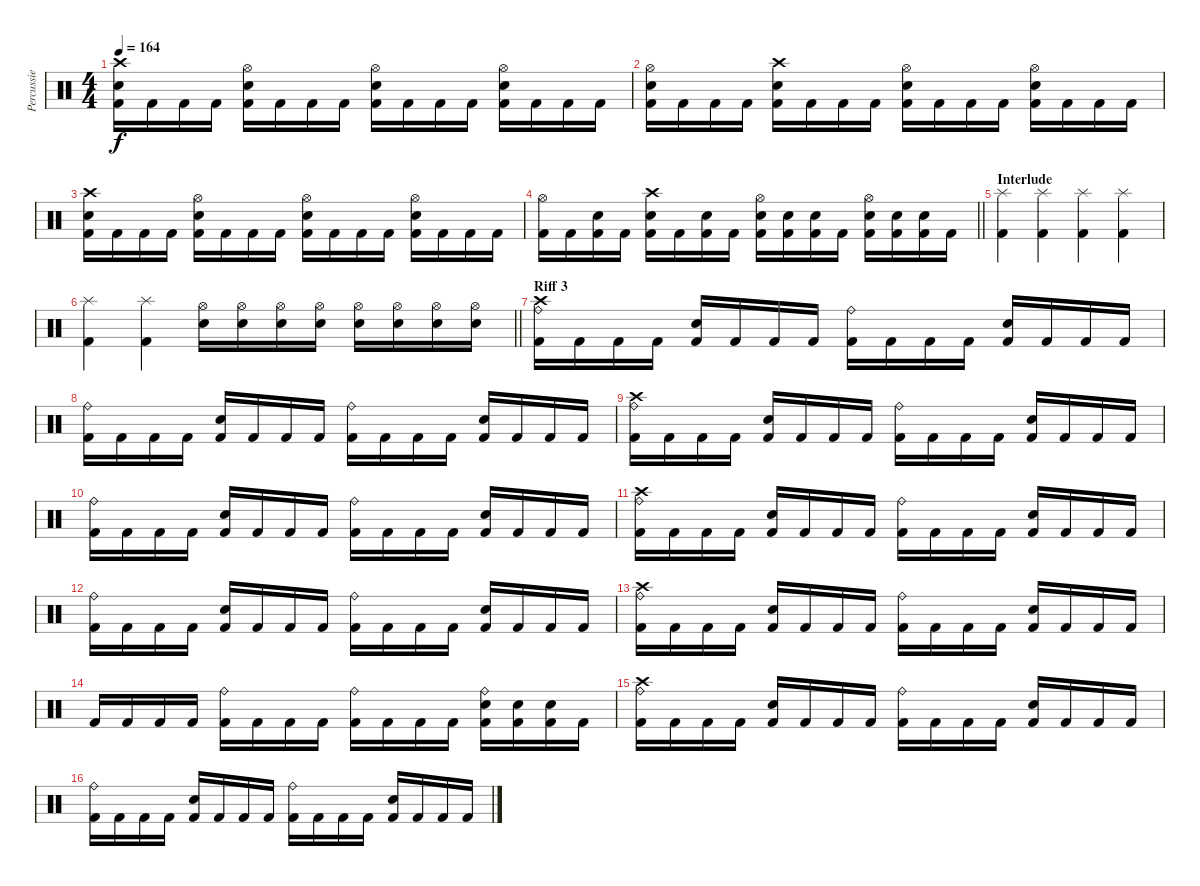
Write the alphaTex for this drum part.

\track ("Percussie" "Percussie") {instrument percussion}
\staff {score}
\articulation defaults
\ts (4 4)
\tempo 164
\clef neutral
\ks c
("Crash high (hit)" "Electric Snare (hit)" "Kick (hit) 2").16{dy f} "Kick (hit) 2".16 "Kick (hit) 2".16 "Kick (hit) 2".16 ("Hi-Hat (open)" "Electric Snare (hit)" "Kick (hit) 2").16 "Kick (hit) 2".16 "Kick (hit) 2".16 "Kick (hit) 2".16 ("Hi-Hat (open)" "Electric Snare (hit)" "Kick (hit) 2").16 "Kick (hit) 2".16 "Kick (hit) 2".16 "Kick (hit) 2".16 ("Hi-Hat (open)" "Electric Snare (hit)" "Kick (hit) 2").16 "Kick (hit) 2".16 "Kick (hit) 2".16 "Kick (hit) 2".16 |
("Hi-Hat (open)" "Electric Snare (hit)" "Kick (hit) 2").16 "Kick (hit) 2".16 "Kick (hit) 2".16 "Kick (hit) 2".16 ("Crash high (hit)" "Electric Snare (hit)" "Kick (hit) 2").16 "Kick (hit) 2".16 "Kick (hit) 2".16 "Kick (hit) 2".16 ("Hi-Hat (open)" "Electric Snare (hit)" "Kick (hit) 2").16 "Kick (hit) 2".16 "Kick (hit) 2".16 "Kick (hit) 2".16 ("Hi-Hat (open)" "Electric Snare (hit)" "Kick (hit) 2").16 "Kick (hit) 2".16 "Kick (hit) 2".16 "Kick (hit) 2".16 |
("Crash high (hit)" "Electric Snare (hit)" "Kick (hit) 2").16 "Kick (hit) 2".16 "Kick (hit) 2".16 "Kick (hit) 2".16 ("Hi-Hat (open)" "Electric Snare (hit)" "Kick (hit) 2").16 "Kick (hit) 2".16 "Kick (hit) 2".16 "Kick (hit) 2".16 ("Hi-Hat (open)" "Electric Snare (hit)" "Kick (hit) 2").16 "Kick (hit) 2".16 "Kick (hit) 2".16 "Kick (hit) 2".16 ("Hi-Hat (open)" "Electric Snare (hit)" "Kick (hit) 2").16 "Kick (hit) 2".16 "Kick (hit) 2".16 "Kick (hit) 2".16 |
\barLineRight lightlight
("Hi-Hat (open)" "Kick (hit) 2").16 "Kick (hit) 2".16 ("Electric Snare (hit)" "Kick (hit) 2").16 "Kick (hit) 2".16 ("Crash high (hit)" "Electric Snare (hit)" "Kick (hit) 2").16 "Kick (hit) 2".16 ("Electric Snare (hit)" "Kick (hit) 2").16 "Kick (hit) 2".16 ("Hi-Hat (open)" "Electric Snare (hit)" "Kick (hit) 2").16 ("Electric Snare (hit)" "Kick (hit) 2").16 ("Electric Snare (hit)" "Kick (hit) 2").16 "Kick (hit) 2".16 ("Hi-Hat (open)" "Electric Snare (hit)" "Kick (hit) 2").16 ("Electric Snare (hit)" "Kick (hit) 2").16 ("Electric Snare (hit)" "Kick (hit) 2").16 "Kick (hit) 2".16 |
\section ("" "Interlude")
("Splash (hit)" "Kick (hit) 2").4 ("Splash (hit)" "Kick (hit) 2").4 ("Splash (hit)" "Kick (hit) 2").4 ("Splash (hit)" "Kick (hit) 2").4 |
\barLineRight lightlight
("Splash (hit)" "Kick (hit) 2").4 ("Splash (hit)" "Kick (hit) 2").4 ("Hi-Hat (open)" "Electric Snare (hit)").16 ("Hi-Hat (open)" "Electric Snare (hit)").16 ("Hi-Hat (open)" "Electric Snare (hit)").16 ("Hi-Hat (open)" "Electric Snare (hit)").16 ("Hi-Hat (open)" "Electric Snare (hit)").16 ("Hi-Hat (open)" "Electric Snare (hit)").16 ("Hi-Hat (open)" "Electric Snare (hit)").16 ("Hi-Hat (open)" "Electric Snare (hit)").16 |
\section ("" "Riff 3")
("Ride (bell)" "Crash high (hit)" "Kick (hit) 2").16 "Kick (hit) 2".16 "Kick (hit) 2".16 "Kick (hit) 2".16 ("Electric Snare (hit)" "Kick (hit) 2").16 "Kick (hit) 2".16 "Kick (hit) 2".16 "Kick (hit) 2".16 ("Ride (bell)" "Kick (hit) 2").16 "Kick (hit) 2".16 "Kick (hit) 2".16 "Kick (hit) 2".16 ("Electric Snare (hit)" "Kick (hit) 2").16 "Kick (hit) 2".16 "Kick (hit) 2".16 "Kick (hit) 2".16 |
("Ride (bell)" "Kick (hit) 2").16 "Kick (hit) 2".16 "Kick (hit) 2".16 "Kick (hit) 2".16 ("Electric Snare (hit)" "Kick (hit) 2").16 "Kick (hit) 2".16 "Kick (hit) 2".16 "Kick (hit) 2".16 ("Ride (bell)" "Kick (hit) 2").16 "Kick (hit) 2".16 "Kick (hit) 2".16 "Kick (hit) 2".16 ("Electric Snare (hit)" "Kick (hit) 2").16 "Kick (hit) 2".16 "Kick (hit) 2".16 "Kick (hit) 2".16 |
("Ride (bell)" "Crash high (hit)" "Kick (hit) 2").16 "Kick (hit) 2".16 "Kick (hit) 2".16 "Kick (hit) 2".16 ("Electric Snare (hit)" "Kick (hit) 2").16 "Kick (hit) 2".16 "Kick (hit) 2".16 "Kick (hit) 2".16 ("Ride (bell)" "Kick (hit) 2").16 "Kick (hit) 2".16 "Kick (hit) 2".16 "Kick (hit) 2".16 ("Electric Snare (hit)" "Kick (hit) 2").16 "Kick (hit) 2".16 "Kick (hit) 2".16 "Kick (hit) 2".16 |
("Ride (bell)" "Kick (hit) 2").16 "Kick (hit) 2".16 "Kick (hit) 2".16 "Kick (hit) 2".16 ("Electric Snare (hit)" "Kick (hit) 2").16 "Kick (hit) 2".16 "Kick (hit) 2".16 "Kick (hit) 2".16 ("Ride (bell)" "Kick (hit) 2").16 "Kick (hit) 2".16 "Kick (hit) 2".16 "Kick (hit) 2".16 ("Electric Snare (hit)" "Kick (hit) 2").16 "Kick (hit) 2".16 "Kick (hit) 2".16 "Kick (hit) 2".16 |
("Ride (bell)" "Crash high (hit)" "Kick (hit) 2").16 "Kick (hit) 2".16 "Kick (hit) 2".16 "Kick (hit) 2".16 ("Electric Snare (hit)" "Kick (hit) 2").16 "Kick (hit) 2".16 "Kick (hit) 2".16 "Kick (hit) 2".16 ("Ride (bell)" "Kick (hit) 2").16 "Kick (hit) 2".16 "Kick (hit) 2".16 "Kick (hit) 2".16 ("Electric Snare (hit)" "Kick (hit) 2").16 "Kick (hit) 2".16 "Kick (hit) 2".16 "Kick (hit) 2".16 |
("Ride (bell)" "Kick (hit) 2").16 "Kick (hit) 2".16 "Kick (hit) 2".16 "Kick (hit) 2".16 ("Electric Snare (hit)" "Kick (hit) 2").16 "Kick (hit) 2".16 "Kick (hit) 2".16 "Kick (hit) 2".16 ("Ride (bell)" "Kick (hit) 2").16 "Kick (hit) 2".16 "Kick (hit) 2".16 "Kick (hit) 2".16 ("Electric Snare (hit)" "Kick (hit) 2").16 "Kick (hit) 2".16 "Kick (hit) 2".16 "Kick (hit) 2".16 |
("Ride (bell)" "Crash high (hit)" "Kick (hit) 2").16 "Kick (hit) 2".16 "Kick (hit) 2".16 "Kick (hit) 2".16 ("Electric Snare (hit)" "Kick (hit) 2").16 "Kick (hit) 2".16 "Kick (hit) 2".16 "Kick (hit) 2".16 ("Ride (bell)" "Kick (hit) 2").16 "Kick (hit) 2".16 "Kick (hit) 2".16 "Kick (hit) 2".16 ("Electric Snare (hit)" "Kick (hit) 2").16 "Kick (hit) 2".16 "Kick (hit) 2".16 "Kick (hit) 2".16 |
"Kick (hit) 2".16 "Kick (hit) 2".16 "Kick (hit) 2".16 "Kick (hit) 2".16 ("Ride (bell)" "Kick (hit) 2").16 "Kick (hit) 2".16 "Kick (hit) 2".16 "Kick (hit) 2".16 ("Ride (bell)" "Kick (hit) 2").16 "Kick (hit) 2".16 "Kick (hit) 2".16 "Kick (hit) 2".16 ("Ride (bell)" "Electric Snare (hit)" "Kick (hit) 2").16 ("Electric Snare (hit)" "Kick (hit) 2").16 ("Electric Snare (hit)" "Kick (hit) 2").16 "Kick (hit) 2".16 |
("Ride (bell)" "Crash high (hit)" "Kick (hit) 2").16 "Kick (hit) 2".16 "Kick (hit) 2".16 "Kick (hit) 2".16 ("Electric Snare (hit)" "Kick (hit) 2").16 "Kick (hit) 2".16 "Kick (hit) 2".16 "Kick (hit) 2".16 ("Ride (bell)" "Kick (hit) 2").16 "Kick (hit) 2".16 "Kick (hit) 2".16 "Kick (hit) 2".16 ("Electric Snare (hit)" "Kick (hit) 2").16 "Kick (hit) 2".16 "Kick (hit) 2".16 "Kick (hit) 2".16 |
("Ride (bell)" "Kick (hit) 2").16 "Kick (hit) 2".16 "Kick (hit) 2".16 "Kick (hit) 2".16 ("Electric Snare (hit)" "Kick (hit) 2").16 "Kick (hit) 2".16 "Kick (hit) 2".16 "Kick (hit) 2".16 ("Ride (bell)" "Kick (hit) 2").16 "Kick (hit) 2".16 "Kick (hit) 2".16 "Kick (hit) 2".16 ("Electric Snare (hit)" "Kick (hit) 2").16 "Kick (hit) 2".16 "Kick (hit) 2".16 "Kick (hit) 2".16
